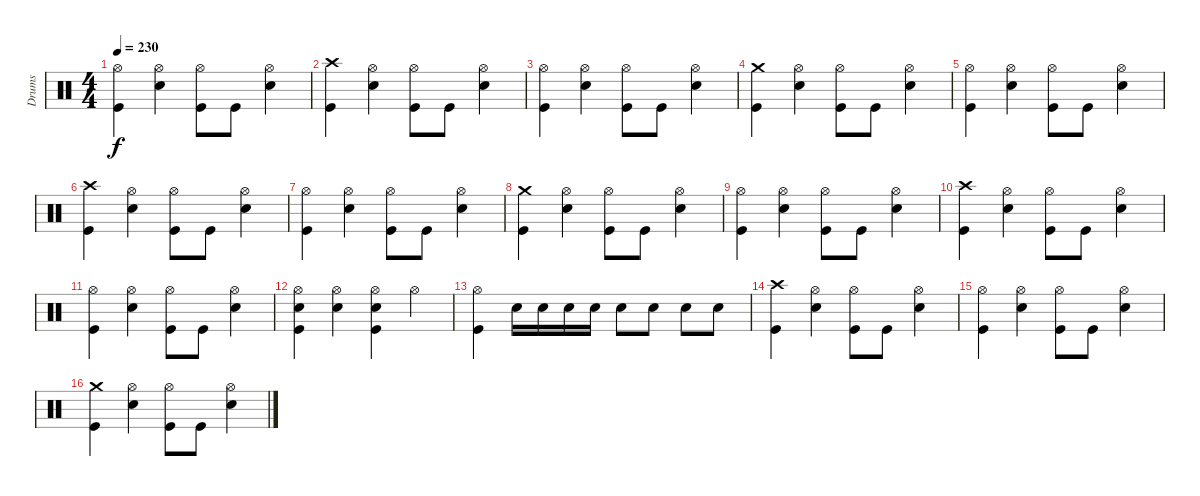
\track ("Drums" "Drums") {instrument percussion}
\staff {score}
\articulation defaults
\ts (4 4)
\tempo 230
\clef neutral
\ks c
("Hi-Hat (open)" "Kick (hit)").4{dy f} ("Hi-Hat (open)" "Snare (hit) 2").4 ("Hi-Hat (open)" "Kick (hit)").8 "Kick (hit)".8 ("Hi-Hat (open)" "Snare (hit) 2").4 |
("Crash high (hit)" "Kick (hit)").4 ("Hi-Hat (open)" "Snare (hit) 2").4 ("Hi-Hat (open)" "Kick (hit)").8 "Kick (hit)".8 ("Hi-Hat (open)" "Snare (hit) 2").4 |
("Hi-Hat (open)" "Kick (hit)").4 ("Hi-Hat (open)" "Snare (hit) 2").4 ("Hi-Hat (open)" "Kick (hit)").8 "Kick (hit)".8 ("Hi-Hat (open)" "Snare (hit) 2").4 |
("Crash medium (hit)" "Kick (hit)").4 ("Hi-Hat (open)" "Snare (hit) 2").4 ("Hi-Hat (open)" "Kick (hit)").8 "Kick (hit)".8 ("Hi-Hat (open)" "Snare (hit) 2").4 |
("Hi-Hat (open)" "Kick (hit)").4 ("Hi-Hat (open)" "Snare (hit) 2").4 ("Hi-Hat (open)" "Kick (hit)").8 "Kick (hit)".8 ("Hi-Hat (open)" "Snare (hit) 2").4 |
("Crash high (hit)" "Kick (hit)").4 ("Hi-Hat (open)" "Snare (hit) 2").4 ("Hi-Hat (open)" "Kick (hit)").8 "Kick (hit)".8 ("Hi-Hat (open)" "Snare (hit) 2").4 |
("Hi-Hat (open)" "Kick (hit)").4 ("Hi-Hat (open)" "Snare (hit) 2").4 ("Hi-Hat (open)" "Kick (hit)").8 "Kick (hit)".8 ("Hi-Hat (open)" "Snare (hit) 2").4 |
("Crash medium (hit)" "Kick (hit)").4 ("Hi-Hat (open)" "Snare (hit) 2").4 ("Hi-Hat (open)" "Kick (hit)").8 "Kick (hit)".8 ("Hi-Hat (open)" "Snare (hit) 2").4 |
("Hi-Hat (open)" "Kick (hit)").4 ("Hi-Hat (open)" "Snare (hit) 2").4 ("Hi-Hat (open)" "Kick (hit)").8 "Kick (hit)".8 ("Hi-Hat (open)" "Snare (hit) 2").4 |
("Crash high (hit)" "Kick (hit)").4 ("Hi-Hat (open)" "Snare (hit) 2").4 ("Hi-Hat (open)" "Kick (hit)").8 "Kick (hit)".8 ("Hi-Hat (open)" "Snare (hit) 2").4 |
("Hi-Hat (open)" "Kick (hit)").4 ("Hi-Hat (open)" "Snare (hit) 2").4 ("Hi-Hat (open)" "Kick (hit)").8 "Kick (hit)".8 ("Hi-Hat (open)" "Snare (hit) 2").4 |
("Hi-Hat (open)" "Snare (hit) 2" "Kick (hit)").4 ("Hi-Hat (open)" "Snare (hit) 2").4 ("Hi-Hat (open)" "Snare (hit) 2" "Kick (hit)").4 "Hi-Hat (open)".4 |
("Hi-Hat (open)" "Kick (hit)").4 "Snare (hit) 2".16 "Snare (hit) 2".16 "Snare (hit) 2".16 "Snare (hit) 2".16 "Snare (hit) 2".8 "Snare (hit) 2".8 "Snare (hit) 2".8 "Snare (hit) 2".8 |
("Crash high (hit)" "Kick (hit)").4 ("Hi-Hat (open)" "Snare (hit) 2").4 ("Hi-Hat (open)" "Kick (hit)").8 "Kick (hit)".8 ("Hi-Hat (open)" "Snare (hit) 2").4 |
("Hi-Hat (open)" "Kick (hit)").4 ("Hi-Hat (open)" "Snare (hit) 2").4 ("Hi-Hat (open)" "Kick (hit)").8 "Kick (hit)".8 ("Hi-Hat (open)" "Snare (hit) 2").4 |
("Crash medium (hit)" "Kick (hit)").4 ("Hi-Hat (open)" "Snare (hit) 2").4 ("Hi-Hat (open)" "Kick (hit)").8 "Kick (hit)".8 ("Hi-Hat (open)" "Snare (hit) 2").4
